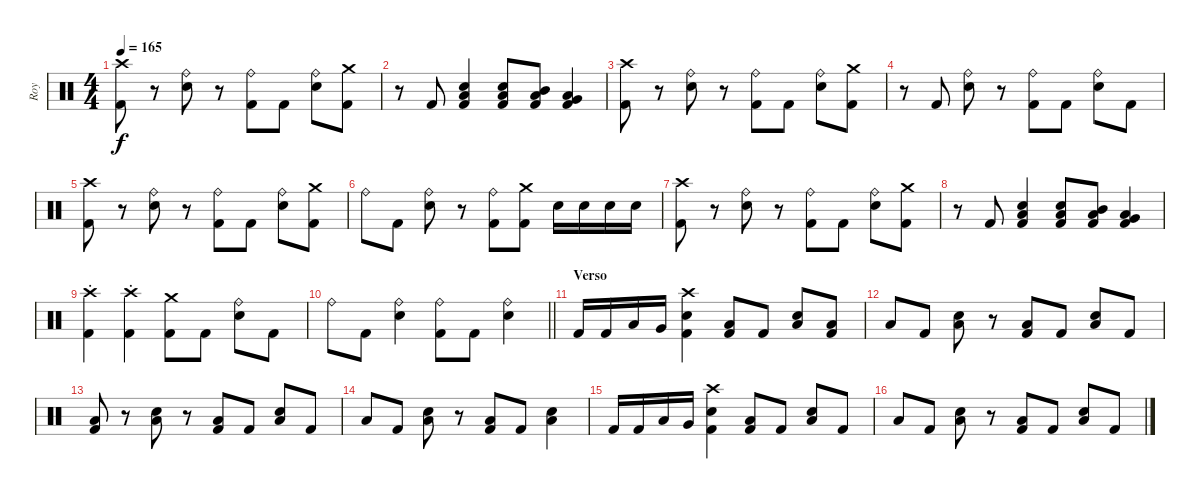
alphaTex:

\track ("Roy" "Roy") {instrument percussion}
\staff {score}
\articulation defaults
\ts (4 4)
\tempo 165
\clef neutral
\ks c
("Crash high (hit)" "Kick (hit) 2").8{dy f} r.8 ("Ride (bell)" "Electric Snare (hit)").8 r.8 ("Ride (bell)" "Kick (hit) 2").8 "Kick (hit) 2".8 ("Ride (bell)" "Electric Snare (hit)").8 ("Crash medium (hit)" "Kick (hit) 2").8 |
r.8 "Kick (hit) 2".8 ("Electric Snare (hit)" "Low Tom (hit)" "Kick (hit) 2").4 ("Electric Snare (hit)" "Low Tom (hit)" "Kick (hit) 2").8 ("Mid Tom (hit)" "Low Tom (hit)" "Kick (hit) 2").8 ("Very Low Tom (hit)" "Low Tom (hit)" "Kick (hit) 2").4 |
("Crash high (hit)" "Kick (hit) 2").8 r.8 ("Ride (bell)" "Electric Snare (hit)").8 r.8 ("Ride (bell)" "Kick (hit) 2").8 "Kick (hit) 2".8 ("Ride (bell)" "Electric Snare (hit)").8 ("Crash medium (hit)" "Kick (hit) 2").8 |
r.8 "Kick (hit) 2".8 ("Ride (bell)" "Electric Snare (hit)").8 r.8 ("Ride (bell)" "Kick (hit) 2").8 "Kick (hit) 2".8 ("Ride (bell)" "Electric Snare (hit)").8 "Kick (hit) 2".8 |
("Crash high (hit)" "Kick (hit) 2").8 r.8 ("Ride (bell)" "Electric Snare (hit)").8 r.8 ("Ride (bell)" "Kick (hit) 2").8 "Kick (hit) 2".8 ("Ride (bell)" "Electric Snare (hit)").8 ("Crash medium (hit)" "Kick (hit) 2").8 |
"Ride (bell)".8 "Kick (hit) 2".8 ("Ride (bell)" "Electric Snare (hit)").8 r.8 ("Ride (bell)" "Kick (hit) 2").8 ("Crash medium (hit)" "Kick (hit) 2").8 "Electric Snare (hit)".16 "Electric Snare (hit)".16 "Electric Snare (hit)".16 "Electric Snare (hit)".16 |
("Crash high (hit)" "Kick (hit) 2").8 r.8 ("Ride (bell)" "Electric Snare (hit)").8 r.8 ("Ride (bell)" "Kick (hit) 2").8 "Kick (hit) 2".8 ("Ride (bell)" "Electric Snare (hit)").8 ("Crash medium (hit)" "Kick (hit) 2").8 |
r.8 "Kick (hit) 2".8 ("Electric Snare (hit)" "Low Tom (hit)" "Kick (hit) 2").4 ("Electric Snare (hit)" "Low Tom (hit)" "Kick (hit) 2").8 ("Mid Tom (hit)" "Low Tom (hit)" "Kick (hit) 2").8 ("Very Low Tom (hit)" "Low Tom (hit)" "Kick (hit) 2").4 |
("Crash high (hit)"{st} "Kick (hit) 2").4 ("Crash high (hit)"{st} "Kick (hit) 2").4 ("Crash medium (hit)" "Kick (hit) 2").8 "Kick (hit) 2".8 ("Ride (bell)" "Electric Snare (hit)").8 "Kick (hit) 2".8 |
\barLineRight lightlight "Ride (bell)".8 "Kick (hit) 2".8
("Ride (bell)" "Electric Snare (hit)").4 ("Ride (bell)" "Kick (hit) 2").8 "Kick (hit) 2".8 ("Ride (bell)" "Electric Snare (hit)").4 |
\section ("" "Verso")
"Kick (hit) 2".16 "Kick (hit) 2".16 "Low Tom (hit)".16 "Very Low Tom (hit)".16 ("Crash high (hit)" "Electric Snare (hit)" "Kick (hit) 2").4 ("Low Tom (hit)" "Kick (hit) 2").8 "Kick (hit) 2".8 ("Electric Snare (hit)" "Low Tom (hit)").8 ("Low Tom (hit)" "Kick (hit) 2").8 |
"Low Tom (hit)".8 "Kick (hit) 2".8 ("Electric Snare (hit)" "Low Tom (hit)").8 r.8 ("Low Tom (hit)" "Kick (hit) 2").8 "Kick (hit) 2".8 ("Electric Snare (hit)" "Low Tom (hit)").8 "Kick (hit) 2".8 |
("Low Tom (hit)" "Kick (hit) 2").8 r.8 ("Electric Snare (hit)" "Low Tom (hit)").8 r.8 ("Low Tom (hit)" "Kick (hit) 2").8 "Kick (hit) 2".8 ("Electric Snare (hit)" "Low Tom (hit)").8 "Kick (hit) 2".8 |
"Low Tom (hit)".8 "Kick (hit) 2".8 ("Electric Snare (hit)" "Low Tom (hit)").8 r.8 ("Low Tom (hit)" "Kick (hit) 2").8 "Kick (hit) 2".8 ("Electric Snare (hit)" "Low Tom (hit)").4 |
"Kick (hit) 2".16 "Kick (hit) 2".16 "Low Tom (hit)".16 "Very Low Tom (hit)".16 ("Crash high (hit)" "Electric Snare (hit)" "Kick (hit) 2").4 ("Low Tom (hit)" "Kick (hit) 2").8 "Kick (hit) 2".8 ("Electric Snare (hit)" "Low Tom (hit)").8 "Kick (hit) 2".8 |
"Low Tom (hit)".8 "Kick (hit) 2".8 ("Electric Snare (hit)" "Low Tom (hit)").8 r.8 ("Low Tom (hit)" "Kick (hit) 2").8 "Kick (hit) 2".8 ("Electric Snare (hit)" "Low Tom (hit)").8 "Kick (hit) 2".8
